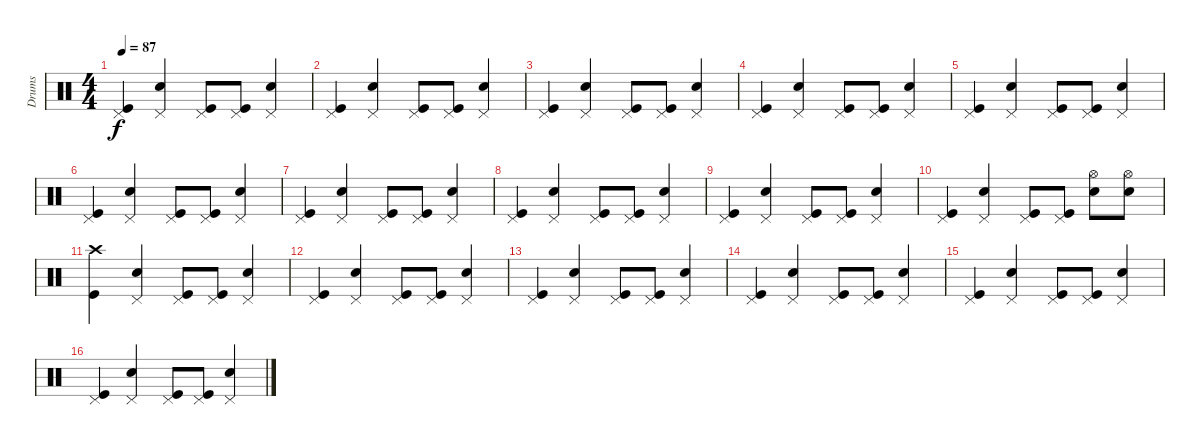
\track ("Drums" "Drums") {instrument percussion}
\staff {score}
\articulation defaults
\ts (4 4)
\tempo 87
\clef neutral
\ks c
("Pedal Hi-Hat (hit)" "Kick (hit)").4{dy f} ("Pedal Hi-Hat (hit)" "Electric Snare (hit)").4 ("Pedal Hi-Hat (hit)" "Kick (hit)").8 ("Pedal Hi-Hat (hit)" "Kick (hit)").8 ("Pedal Hi-Hat (hit)" "Snare (hit) 2").4 |
("Pedal Hi-Hat (hit)" "Kick (hit)").4 ("Pedal Hi-Hat (hit)" "Electric Snare (hit)").4 ("Pedal Hi-Hat (hit)" "Kick (hit)").8 ("Pedal Hi-Hat (hit)" "Kick (hit)").8 ("Pedal Hi-Hat (hit)" "Snare (hit) 2").4 |
("Pedal Hi-Hat (hit)" "Kick (hit)").4 ("Pedal Hi-Hat (hit)" "Electric Snare (hit)").4 ("Pedal Hi-Hat (hit)" "Kick (hit)").8 ("Pedal Hi-Hat (hit)" "Kick (hit)").8 ("Pedal Hi-Hat (hit)" "Snare (hit) 2").4 |
("Pedal Hi-Hat (hit)" "Kick (hit)").4 ("Pedal Hi-Hat (hit)" "Electric Snare (hit)").4 ("Pedal Hi-Hat (hit)" "Kick (hit)").8 ("Pedal Hi-Hat (hit)" "Kick (hit)").8 ("Pedal Hi-Hat (hit)" "Snare (hit) 2").4 |
("Pedal Hi-Hat (hit)" "Kick (hit)").4 ("Pedal Hi-Hat (hit)" "Electric Snare (hit)").4 ("Pedal Hi-Hat (hit)" "Kick (hit)").8 ("Pedal Hi-Hat (hit)" "Kick (hit)").8 ("Pedal Hi-Hat (hit)" "Snare (hit) 2").4 |
("Pedal Hi-Hat (hit)" "Kick (hit)").4 ("Pedal Hi-Hat (hit)" "Electric Snare (hit)").4 ("Pedal Hi-Hat (hit)" "Kick (hit)").8 ("Pedal Hi-Hat (hit)" "Kick (hit)").8 ("Pedal Hi-Hat (hit)" "Snare (hit) 2").4 |
("Pedal Hi-Hat (hit)" "Kick (hit)").4 ("Pedal Hi-Hat (hit)" "Electric Snare (hit)").4 ("Pedal Hi-Hat (hit)" "Kick (hit)").8 ("Pedal Hi-Hat (hit)" "Kick (hit)").8 ("Pedal Hi-Hat (hit)" "Snare (hit) 2").4 |
("Pedal Hi-Hat (hit)" "Kick (hit)").4 ("Pedal Hi-Hat (hit)" "Electric Snare (hit)").4 ("Pedal Hi-Hat (hit)" "Kick (hit)").8 ("Pedal Hi-Hat (hit)" "Kick (hit)").8 ("Pedal Hi-Hat (hit)" "Snare (hit) 2").4 |
("Pedal Hi-Hat (hit)" "Kick (hit)").4 ("Pedal Hi-Hat (hit)" "Electric Snare (hit)").4 ("Pedal Hi-Hat (hit)" "Kick (hit)").8 ("Pedal Hi-Hat (hit)" "Kick (hit)").8 ("Pedal Hi-Hat (hit)" "Snare (hit) 2").4 |
("Pedal Hi-Hat (hit)" "Kick (hit)").4 ("Pedal Hi-Hat (hit)" "Electric Snare (hit)").4 ("Pedal Hi-Hat (hit)" "Kick (hit)").8 ("Pedal Hi-Hat (hit)" "Kick (hit)").8 ("Hi-Hat (open)" "Snare (hit) 2").8 ("Hi-Hat (open)" "Snare (hit) 2").8 |
("Crash high (hit)" "Kick (hit)").4 ("Pedal Hi-Hat (hit)" "Electric Snare (hit)").4 ("Pedal Hi-Hat (hit)" "Kick (hit)").8 ("Pedal Hi-Hat (hit)" "Kick (hit)").8 ("Pedal Hi-Hat (hit)" "Snare (hit) 2").4 |
("Pedal Hi-Hat (hit)" "Kick (hit)").4 ("Pedal Hi-Hat (hit)" "Electric Snare (hit)").4 ("Pedal Hi-Hat (hit)" "Kick (hit)").8 ("Pedal Hi-Hat (hit)" "Kick (hit)").8 ("Pedal Hi-Hat (hit)" "Snare (hit) 2").4 |
("Pedal Hi-Hat (hit)" "Kick (hit)").4 ("Pedal Hi-Hat (hit)" "Electric Snare (hit)").4 ("Pedal Hi-Hat (hit)" "Kick (hit)").8 ("Pedal Hi-Hat (hit)" "Kick (hit)").8 ("Pedal Hi-Hat (hit)" "Snare (hit) 2").4 |
("Pedal Hi-Hat (hit)" "Kick (hit)").4 ("Pedal Hi-Hat (hit)" "Electric Snare (hit)").4 ("Pedal Hi-Hat (hit)" "Kick (hit)").8 ("Pedal Hi-Hat (hit)" "Kick (hit)").8 ("Pedal Hi-Hat (hit)" "Snare (hit) 2").4 |
("Pedal Hi-Hat (hit)" "Kick (hit)").4 ("Pedal Hi-Hat (hit)" "Electric Snare (hit)").4 ("Pedal Hi-Hat (hit)" "Kick (hit)").8 ("Pedal Hi-Hat (hit)" "Kick (hit)").8 ("Pedal Hi-Hat (hit)" "Snare (hit) 2").4 |
("Pedal Hi-Hat (hit)" "Kick (hit)").4 ("Pedal Hi-Hat (hit)" "Electric Snare (hit)").4 ("Pedal Hi-Hat (hit)" "Kick (hit)").8 ("Pedal Hi-Hat (hit)" "Kick (hit)").8 ("Pedal Hi-Hat (hit)" "Snare (hit) 2").4
